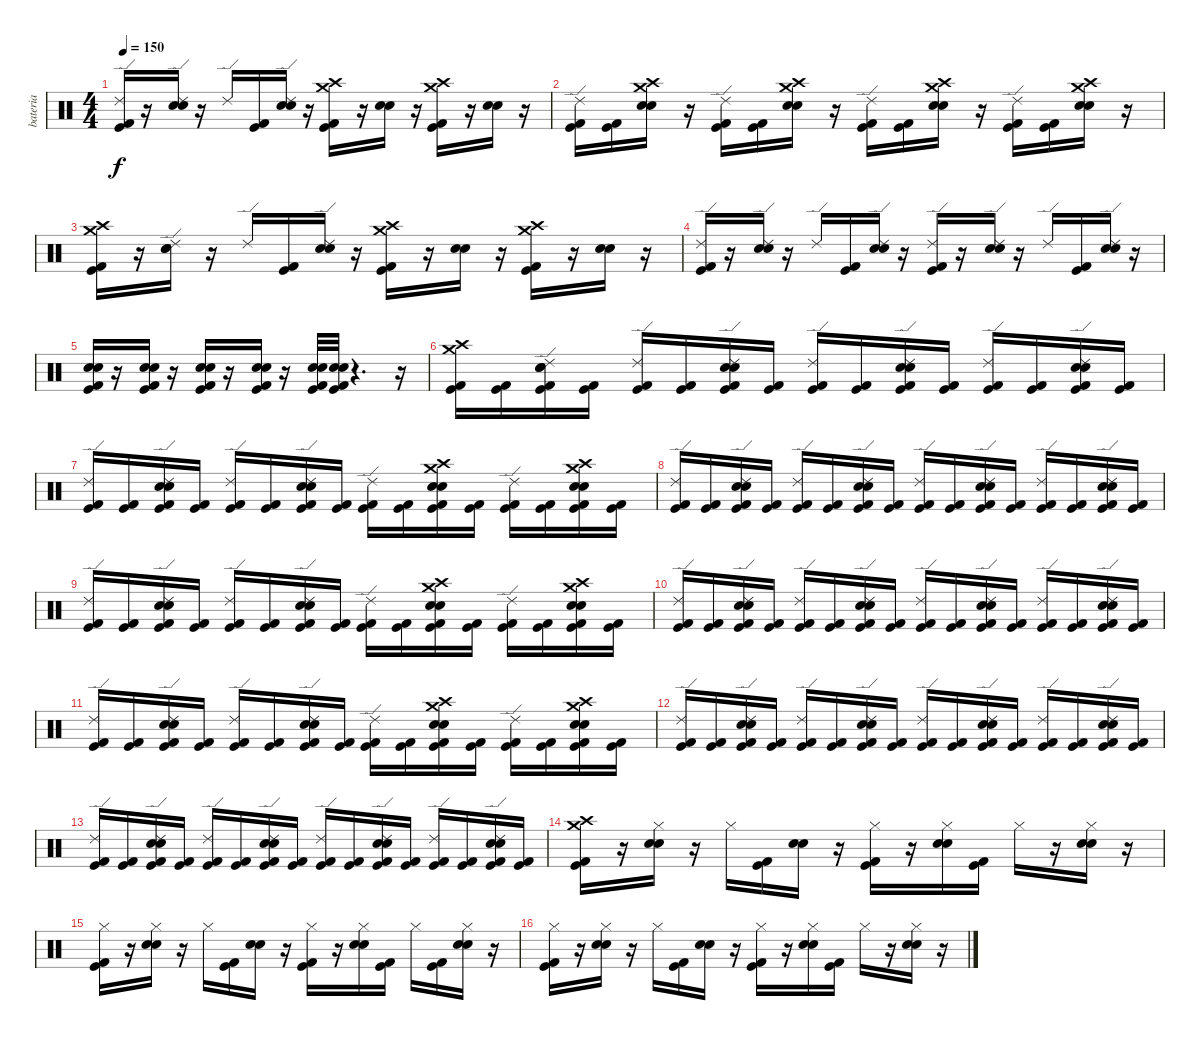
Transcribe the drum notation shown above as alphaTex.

\track ("bateria" "bateria") {instrument percussion}
\staff {score}
\articulation defaults
\ts (4 4)
\tempo 150
\clef neutral
\ks c
("Ride (edge) 2" "Kick (hit) 2" "Kick (hit)").16{dy f} r.16 ("Ride (edge) 2" "Electric Snare (hit)" "Snare (hit) 2").16 r.16 "Ride (edge) 2".16 ("Kick (hit) 2" "Kick (hit)").16 ("Ride (edge) 2" "Electric Snare (hit)" "Snare (hit) 2").16 r.16 ("Crash high (hit)" "Crash medium (hit)" "Kick (hit) 2" "Kick (hit)").16 r.16 ("Electric Snare (hit)" "Snare (hit) 2").16 r.16 ("Crash high (hit)" "Crash medium (hit)" "Kick (hit)" "Kick (hit) 2").16 r.16 ("Electric Snare (hit)" "Snare (hit) 2").16 r.16 |
("Ride (edge) 2" "Kick (hit) 2" "Kick (hit)").16 ("Kick (hit) 2" "Kick (hit)").16 ("Crash high (hit)" "Crash medium (hit)" "Electric Snare (hit)" "Snare (hit) 2").16 r.16 ("Ride (edge) 2" "Kick (hit) 2" "Kick (hit)").16 ("Kick (hit) 2" "Kick (hit)").16 ("Crash high (hit)" "Crash medium (hit)" "Electric Snare (hit)" "Snare (hit) 2").16 r.16 ("Ride (edge) 2" "Kick (hit) 2" "Kick (hit)").16 ("Kick (hit) 2" "Kick (hit)").16 ("Crash high (hit)" "Crash medium (hit)" "Electric Snare (hit)" "Snare (hit) 2").16 r.16 ("Ride (edge) 2" "Kick (hit) 2" "Kick (hit)").16 ("Kick (hit) 2" "Kick (hit)").16 ("Crash medium (hit)" "Crash high (hit)" "Electric Snare (hit)" "Snare (hit) 2").16 r.16 |
("Crash medium (hit)" "Crash high (hit)" "Kick (hit) 2" "Kick (hit)").16 r.16 ("Ride (edge) 2" "Electric Snare (hit)" "Snare (hit) 2").16 r.16 "Ride (edge) 2".16 ("Kick (hit) 2" "Kick (hit)").16 ("Ride (edge) 2" "Electric Snare (hit)" "Snare (hit) 2").16 r.16 ("Crash high (hit)" "Crash medium (hit)" "Kick (hit) 2" "Kick (hit)").16 r.16 ("Electric Snare (hit)" "Snare (hit) 2").16 r.16 ("Crash high (hit)" "Crash medium (hit)" "Kick (hit) 2" "Kick (hit)").16 r.16 ("Electric Snare (hit)" "Snare (hit) 2").16 r.16 |
("Ride (edge) 2" "Kick (hit) 2" "Kick (hit)").16 r.16 ("Ride (edge) 2" "Electric Snare (hit)" "Snare (hit) 2").16 r.16 "Ride (edge) 2".16 ("Kick (hit)" "Kick (hit) 2").16 ("Ride (edge) 2" "Electric Snare (hit)" "Snare (hit) 2").16 r.16 ("Ride (edge) 2" "Kick (hit) 2" "Kick (hit)").16 r.16 ("Ride (edge) 2" "Electric Snare (hit)" "Snare (hit) 2").16 r.16 "Ride (edge) 2".16 ("Kick (hit)" "Kick (hit) 2").16 ("Ride (edge) 2" "Electric Snare (hit)" "Snare (hit) 2").16 r.16 |
("Electric Snare (hit)" "Snare (hit) 2" "Kick (hit) 2" "Kick (hit)").16 r.16 ("Electric Snare (hit)" "Snare (hit) 2" "Kick (hit) 2" "Kick (hit)").16 r.16 ("Electric Snare (hit)" "Snare (hit) 2" "Kick (hit) 2" "Kick (hit)").16 r.16 ("Electric Snare (hit)" "Snare (hit) 2" "Kick (hit) 2" "Kick (hit)").16 r.16 ("Kick (hit) 2" "Kick (hit)" "Electric Snare (hit)" "Snare (hit) 2").32 ("Kick (hit) 2" "Kick (hit)" "Electric Snare (hit)" "Snare (hit) 2").32 r.4{d} r.16 |
("Crash high (hit)" "Crash medium (hit)" "Kick (hit) 2" "Kick (hit)").16 ("Kick (hit) 2" "Kick (hit)").16 ("Ride (edge) 2" "Electric Snare (hit)" "Snare (hit) 2" "Kick (hit) 2" "Kick (hit)").16 ("Kick (hit) 2" "Kick (hit)").16 ("Ride (edge) 2" "Kick (hit) 2" "Kick (hit)").16 ("Kick (hit) 2" "Kick (hit)").16 ("Ride (edge) 2" "Electric Snare (hit)" "Snare (hit) 2" "Kick (hit) 2" "Kick (hit)").16 ("Kick (hit) 2" "Kick (hit)").16 ("Ride (edge) 2" "Kick (hit) 2" "Kick (hit)").16 ("Kick (hit) 2" "Kick (hit)").16 ("Ride (edge) 2" "Electric Snare (hit)" "Snare (hit) 2" "Kick (hit) 2" "Kick (hit)").16 ("Kick (hit) 2" "Kick (hit)").16 ("Ride (edge) 2" "Kick (hit) 2" "Kick (hit)").16 ("Kick (hit) 2" "Kick (hit)").16 ("Ride (edge) 2" "Electric Snare (hit)" "Snare (hit) 2" "Kick (hit) 2" "Kick (hit)").16 ("Kick (hit) 2" "Kick (hit)").16 |
("Ride (edge) 2" "Kick (hit) 2" "Kick (hit)").16 ("Kick (hit) 2" "Kick (hit)").16 ("Ride (edge) 2" "Electric Snare (hit)" "Snare (hit) 2" "Kick (hit) 2" "Kick (hit)").16 ("Kick (hit) 2" "Kick (hit)").16 ("Ride (edge) 2" "Kick (hit) 2" "Kick (hit)").16 ("Kick (hit) 2" "Kick (hit)").16 ("Ride (edge) 2" "Electric Snare (hit)" "Snare (hit) 2" "Kick (hit) 2" "Kick (hit)").16 ("Kick (hit) 2" "Kick (hit)").16 ("Ride (edge) 2" "Kick (hit) 2" "Kick (hit)").16 ("Kick (hit) 2" "Kick (hit)").16 ("Crash high (hit)" "Crash medium (hit)" "Electric Snare (hit)" "Snare (hit) 2" "Kick (hit) 2" "Kick (hit)").16 ("Kick (hit) 2" "Kick (hit)").16 ("Ride (edge) 2" "Kick (hit) 2" "Kick (hit)").16 ("Kick (hit) 2" "Kick (hit)").16 ("Crash high (hit)" "Crash medium (hit)" "Electric Snare (hit)" "Snare (hit) 2" "Kick (hit) 2" "Kick (hit)").16 ("Kick (hit) 2" "Kick (hit)").16 |
("Ride (edge) 2" "Kick (hit) 2" "Kick (hit)").16 ("Kick (hit) 2" "Kick (hit)").16 ("Ride (edge) 2" "Electric Snare (hit)" "Snare (hit) 2" "Kick (hit) 2" "Kick (hit)").16 ("Kick (hit) 2" "Kick (hit)").16 ("Ride (edge) 2" "Kick (hit) 2" "Kick (hit)").16 ("Kick (hit) 2" "Kick (hit)").16 ("Ride (edge) 2" "Electric Snare (hit)" "Snare (hit) 2" "Kick (hit) 2" "Kick (hit)").16 ("Kick (hit) 2" "Kick (hit)").16 ("Ride (edge) 2" "Kick (hit) 2" "Kick (hit)").16 ("Kick (hit) 2" "Kick (hit)").16 ("Ride (edge) 2" "Electric Snare (hit)" "Snare (hit) 2" "Kick (hit) 2" "Kick (hit)").16 ("Kick (hit) 2" "Kick (hit)").16 ("Ride (edge) 2" "Kick (hit) 2" "Kick (hit)").16 ("Kick (hit) 2" "Kick (hit)").16 ("Ride (edge) 2" "Electric Snare (hit)" "Snare (hit) 2" "Kick (hit) 2" "Kick (hit)").16 ("Kick (hit) 2" "Kick (hit)").16 |
("Ride (edge) 2" "Kick (hit) 2" "Kick (hit)").16 ("Kick (hit) 2" "Kick (hit)").16 ("Ride (edge) 2" "Electric Snare (hit)" "Snare (hit) 2" "Kick (hit) 2" "Kick (hit)").16 ("Kick (hit) 2" "Kick (hit)").16 ("Ride (edge) 2" "Kick (hit) 2" "Kick (hit)").16 ("Kick (hit) 2" "Kick (hit)").16 ("Ride (edge) 2" "Electric Snare (hit)" "Snare (hit) 2" "Kick (hit) 2" "Kick (hit)").16 ("Kick (hit) 2" "Kick (hit)").16 ("Ride (edge) 2" "Kick (hit) 2" "Kick (hit)").16 ("Kick (hit) 2" "Kick (hit)").16 ("Crash high (hit)" "Crash medium (hit)" "Electric Snare (hit)" "Snare (hit) 2" "Kick (hit) 2" "Kick (hit)").16 ("Kick (hit) 2" "Kick (hit)").16 ("Ride (edge) 2" "Kick (hit) 2" "Kick (hit)").16 ("Kick (hit) 2" "Kick (hit)").16 ("Crash high (hit)" "Crash medium (hit)" "Electric Snare (hit)" "Snare (hit) 2" "Kick (hit) 2" "Kick (hit)").16 ("Kick (hit) 2" "Kick (hit)").16 |
("Ride (edge) 2" "Kick (hit) 2" "Kick (hit)").16 ("Kick (hit) 2" "Kick (hit)").16 ("Ride (edge) 2" "Electric Snare (hit)" "Snare (hit) 2" "Kick (hit) 2" "Kick (hit)").16 ("Kick (hit) 2" "Kick (hit)").16 ("Ride (edge) 2" "Kick (hit) 2" "Kick (hit)").16 ("Kick (hit) 2" "Kick (hit)").16 ("Ride (edge) 2" "Electric Snare (hit)" "Snare (hit) 2" "Kick (hit) 2" "Kick (hit)").16 ("Kick (hit) 2" "Kick (hit)").16 ("Ride (edge) 2" "Kick (hit) 2" "Kick (hit)").16 ("Kick (hit) 2" "Kick (hit)").16 ("Ride (edge) 2" "Electric Snare (hit)" "Snare (hit) 2" "Kick (hit) 2" "Kick (hit)").16 ("Kick (hit) 2" "Kick (hit)").16 ("Ride (edge) 2" "Kick (hit) 2" "Kick (hit)").16 ("Kick (hit) 2" "Kick (hit)").16 ("Ride (edge) 2" "Electric Snare (hit)" "Snare (hit) 2" "Kick (hit) 2" "Kick (hit)").16 ("Kick (hit) 2" "Kick (hit)").16 |
("Ride (edge) 2" "Kick (hit) 2" "Kick (hit)").16 ("Kick (hit) 2" "Kick (hit)").16 ("Ride (edge) 2" "Electric Snare (hit)" "Snare (hit) 2" "Kick (hit) 2" "Kick (hit)").16 ("Kick (hit) 2" "Kick (hit)").16 ("Ride (edge) 2" "Kick (hit) 2" "Kick (hit)").16 ("Kick (hit) 2" "Kick (hit)").16 ("Ride (edge) 2" "Electric Snare (hit)" "Snare (hit) 2" "Kick (hit) 2" "Kick (hit)").16 ("Kick (hit) 2" "Kick (hit)").16 ("Ride (edge) 2" "Kick (hit) 2" "Kick (hit)").16 ("Kick (hit) 2" "Kick (hit)").16 ("Crash high (hit)" "Crash medium (hit)" "Electric Snare (hit)" "Snare (hit) 2" "Kick (hit) 2" "Kick (hit)").16 ("Kick (hit) 2" "Kick (hit)").16 ("Ride (edge) 2" "Kick (hit) 2" "Kick (hit)").16 ("Kick (hit) 2" "Kick (hit)").16 ("Crash high (hit)" "Crash medium (hit)" "Electric Snare (hit)" "Snare (hit) 2" "Kick (hit) 2" "Kick (hit)").16 ("Kick (hit) 2" "Kick (hit)").16 |
("Ride (edge) 2" "Kick (hit) 2" "Kick (hit)").16 ("Kick (hit) 2" "Kick (hit)").16 ("Ride (edge) 2" "Electric Snare (hit)" "Snare (hit) 2" "Kick (hit) 2" "Kick (hit)").16 ("Kick (hit) 2" "Kick (hit)").16 ("Ride (edge) 2" "Kick (hit) 2" "Kick (hit)").16 ("Kick (hit) 2" "Kick (hit)").16 ("Ride (edge) 2" "Electric Snare (hit)" "Snare (hit) 2" "Kick (hit) 2" "Kick (hit)").16 ("Kick (hit) 2" "Kick (hit)").16 ("Ride (edge) 2" "Kick (hit) 2" "Kick (hit)").16 ("Kick (hit) 2" "Kick (hit)").16 ("Ride (edge) 2" "Electric Snare (hit)" "Snare (hit) 2" "Kick (hit) 2" "Kick (hit)").16 ("Kick (hit) 2" "Kick (hit)").16 ("Ride (edge) 2" "Kick (hit) 2" "Kick (hit)").16 ("Kick (hit) 2" "Kick (hit)").16 ("Ride (edge) 2" "Electric Snare (hit)" "Snare (hit) 2" "Kick (hit) 2" "Kick (hit)").16 ("Kick (hit) 2" "Kick (hit)").16 |
("Ride (edge) 2" "Kick (hit) 2" "Kick (hit)").16 ("Kick (hit) 2" "Kick (hit)").16 ("Ride (edge) 2" "Electric Snare (hit)" "Snare (hit) 2" "Kick (hit) 2" "Kick (hit)").16 ("Kick (hit) 2" "Kick (hit)").16 ("Ride (edge) 2" "Kick (hit) 2" "Kick (hit)").16 ("Kick (hit) 2" "Kick (hit)").16 ("Ride (edge) 2" "Electric Snare (hit)" "Snare (hit) 2" "Kick (hit) 2" "Kick (hit)").16 ("Kick (hit) 2" "Kick (hit)").16 ("Ride (edge) 2" "Kick (hit) 2" "Kick (hit)").16 ("Kick (hit) 2" "Kick (hit)").16 ("Ride (edge) 2" "Electric Snare (hit)" "Snare (hit) 2" "Kick (hit) 2" "Kick (hit)").16 ("Kick (hit) 2" "Kick (hit)").16 ("Ride (edge) 2" "Kick (hit) 2" "Kick (hit)").16 ("Kick (hit) 2" "Kick (hit)").16 ("Ride (edge) 2" "Electric Snare (hit)" "Snare (hit) 2" "Kick (hit) 2" "Kick (hit)").16 ("Kick (hit) 2" "Kick (hit)").16 |
("Crash high (hit)" "Crash medium (hit)" "Kick (hit) 2" "Kick (hit)").16 r.16 ("Hi-Hat (closed)" "Electric Snare (hit)" "Snare (hit) 2").16 r.16 "Hi-Hat (closed)".16 ("Kick (hit) 2" "Kick (hit)").16 ("Electric Snare (hit)" "Snare (hit) 2").16 r.16 ("Hi-Hat (closed)" "Kick (hit) 2" "Kick (hit)").16 r.16 ("Hi-Hat (closed)" "Electric Snare (hit)" "Snare (hit) 2").16 ("Kick (hit) 2" "Kick (hit)").16 "Hi-Hat (closed)".16 r.16 ("Hi-Hat (closed)" "Electric Snare (hit)" "Snare (hit) 2").16 r.16 |
("Hi-Hat (closed)" "Kick (hit) 2" "Kick (hit)").16 r.16 ("Hi-Hat (closed)" "Electric Snare (hit)" "Snare (hit) 2").16 r.16 "Hi-Hat (closed)".16 ("Kick (hit) 2" "Kick (hit)").16 ("Electric Snare (hit)" "Snare (hit) 2").16 r.16 ("Hi-Hat (closed)" "Kick (hit) 2" "Kick (hit)").16 r.16 ("Hi-Hat (closed)" "Electric Snare (hit)" "Snare (hit) 2").16 ("Kick (hit) 2" "Kick (hit)").16 "Hi-Hat (closed)".16 ("Kick (hit) 2" "Kick (hit)").16 ("Hi-Hat (closed)" "Electric Snare (hit)" "Snare (hit) 2").16 r.16 |
("Hi-Hat (closed)" "Kick (hit) 2" "Kick (hit)").16 r.16 ("Hi-Hat (closed)" "Electric Snare (hit)" "Snare (hit) 2").16 r.16 "Hi-Hat (closed)".16 ("Kick (hit) 2" "Kick (hit)").16 ("Electric Snare (hit)" "Snare (hit) 2").16 r.16 ("Hi-Hat (closed)" "Kick (hit) 2" "Kick (hit)").16 r.16 ("Hi-Hat (closed)" "Electric Snare (hit)" "Snare (hit) 2").16 ("Kick (hit) 2" "Kick (hit)").16 "Hi-Hat (closed)".16 r.16 ("Hi-Hat (closed)" "Electric Snare (hit)" "Snare (hit) 2").16 r.16
